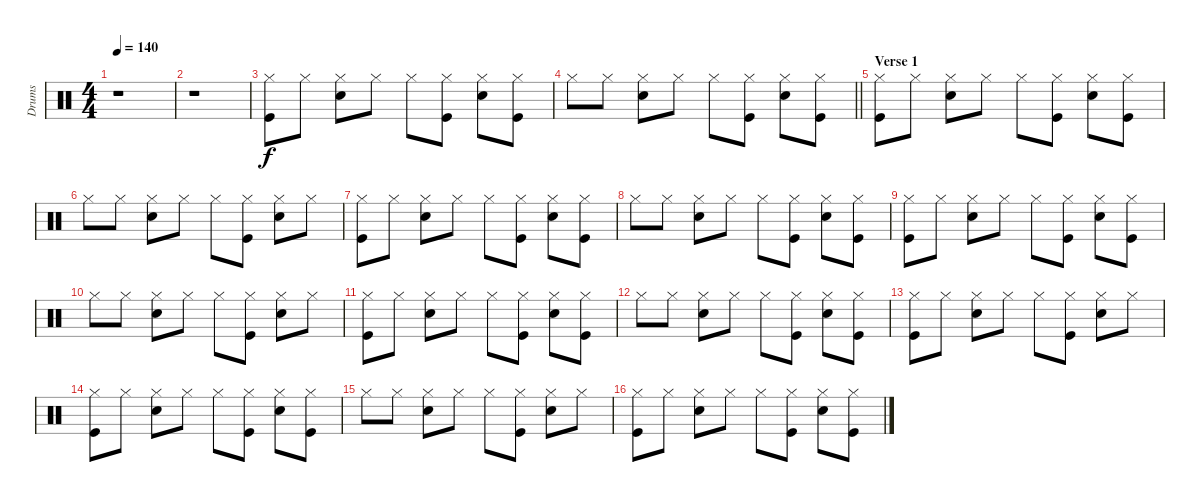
\track ("Drums" "Drums") {instrument percussion}
\staff {score}
\articulation defaults
\ts (4 4)
\tempo 140
\clef neutral
\ks c
r.1{dy f} |
r.1 |
("Hi-Hat (closed)" "Kick (hit)").8 "Hi-Hat (closed)".8 ("Hi-Hat (closed)" "Electric Snare (hit)").8 "Hi-Hat (closed)".8 "Hi-Hat (closed)".8 ("Hi-Hat (closed)" "Kick (hit)").8 ("Hi-Hat (closed)" "Electric Snare (hit)").8 ("Hi-Hat (closed)" "Kick (hit)").8 |
\barLineRight lightlight "Hi-Hat (closed)".8 "Hi-Hat (closed)".8
("Hi-Hat (closed)" "Electric Snare (hit)").8 "Hi-Hat (closed)".8 "Hi-Hat (closed)".8 ("Hi-Hat (closed)" "Kick (hit)").8 ("Hi-Hat (closed)" "Electric Snare (hit)").8 ("Hi-Hat (closed)" "Kick (hit)").8 |
\section ("" "Verse 1")
("Hi-Hat (closed)" "Kick (hit)").8 "Hi-Hat (closed)".8 ("Hi-Hat (closed)" "Electric Snare (hit)").8 "Hi-Hat (closed)".8 "Hi-Hat (closed)".8 ("Hi-Hat (closed)" "Kick (hit)").8 ("Hi-Hat (closed)" "Electric Snare (hit)").8 ("Hi-Hat (closed)" "Kick (hit)").8 |
"Hi-Hat (closed)".8 "Hi-Hat (closed)".8 ("Hi-Hat (closed)" "Electric Snare (hit)").8 "Hi-Hat (closed)".8 "Hi-Hat (closed)".8 ("Hi-Hat (closed)" "Kick (hit)").8 ("Hi-Hat (closed)" "Electric Snare (hit)").8 "Hi-Hat (closed)".8 |
("Hi-Hat (closed)" "Kick (hit)").8 "Hi-Hat (closed)".8 ("Hi-Hat (closed)" "Electric Snare (hit)").8 "Hi-Hat (closed)".8 "Hi-Hat (closed)".8 ("Hi-Hat (closed)" "Kick (hit)").8 ("Hi-Hat (closed)" "Electric Snare (hit)").8 ("Hi-Hat (closed)" "Kick (hit)").8 |
"Hi-Hat (closed)".8 "Hi-Hat (closed)".8 ("Hi-Hat (closed)" "Electric Snare (hit)").8 "Hi-Hat (closed)".8 "Hi-Hat (closed)".8 ("Hi-Hat (closed)" "Kick (hit)").8 ("Hi-Hat (closed)" "Electric Snare (hit)").8 ("Hi-Hat (closed)" "Kick (hit)").8 |
("Hi-Hat (closed)" "Kick (hit)").8 "Hi-Hat (closed)".8 ("Hi-Hat (closed)" "Electric Snare (hit)").8 "Hi-Hat (closed)".8 "Hi-Hat (closed)".8 ("Hi-Hat (closed)" "Kick (hit)").8 ("Hi-Hat (closed)" "Electric Snare (hit)").8 ("Hi-Hat (closed)" "Kick (hit)").8 |
"Hi-Hat (closed)".8 "Hi-Hat (closed)".8 ("Hi-Hat (closed)" "Electric Snare (hit)").8 "Hi-Hat (closed)".8 "Hi-Hat (closed)".8 ("Hi-Hat (closed)" "Kick (hit)").8 ("Hi-Hat (closed)" "Electric Snare (hit)").8 "Hi-Hat (closed)".8 |
("Hi-Hat (closed)" "Kick (hit)").8 "Hi-Hat (closed)".8 ("Hi-Hat (closed)" "Electric Snare (hit)").8 "Hi-Hat (closed)".8 "Hi-Hat (closed)".8 ("Hi-Hat (closed)" "Kick (hit)").8 ("Hi-Hat (closed)" "Electric Snare (hit)").8 ("Hi-Hat (closed)" "Kick (hit)").8 |
"Hi-Hat (closed)".8 "Hi-Hat (closed)".8 ("Hi-Hat (closed)" "Electric Snare (hit)").8 "Hi-Hat (closed)".8 "Hi-Hat (closed)".8 ("Hi-Hat (closed)" "Kick (hit)").8 ("Hi-Hat (closed)" "Electric Snare (hit)").8 ("Hi-Hat (closed)" "Kick (hit)").8 |
("Hi-Hat (closed)" "Kick (hit)").8 "Hi-Hat (closed)".8 ("Hi-Hat (closed)" "Electric Snare (hit)").8 "Hi-Hat (closed)".8 "Hi-Hat (closed)".8 ("Hi-Hat (closed)" "Kick (hit)").8 ("Hi-Hat (closed)" "Electric Snare (hit)").8 "Hi-Hat (closed)".8 |
("Hi-Hat (closed)" "Kick (hit)").8 "Hi-Hat (closed)".8 ("Hi-Hat (closed)" "Electric Snare (hit)").8 "Hi-Hat (closed)".8 "Hi-Hat (closed)".8 ("Hi-Hat (closed)" "Kick (hit)").8 ("Hi-Hat (closed)" "Electric Snare (hit)").8 ("Hi-Hat (closed)" "Kick (hit)").8 |
"Hi-Hat (closed)".8 "Hi-Hat (closed)".8 ("Hi-Hat (closed)" "Electric Snare (hit)").8 "Hi-Hat (closed)".8 "Hi-Hat (closed)".8 ("Hi-Hat (closed)" "Kick (hit)").8 ("Hi-Hat (closed)" "Electric Snare (hit)").8 "Hi-Hat (closed)".8 |
("Hi-Hat (closed)" "Kick (hit)").8 "Hi-Hat (closed)".8 ("Hi-Hat (closed)" "Electric Snare (hit)").8 "Hi-Hat (closed)".8 "Hi-Hat (closed)".8 ("Hi-Hat (closed)" "Kick (hit)").8 ("Hi-Hat (closed)" "Electric Snare (hit)").8 ("Hi-Hat (closed)" "Kick (hit)").8
